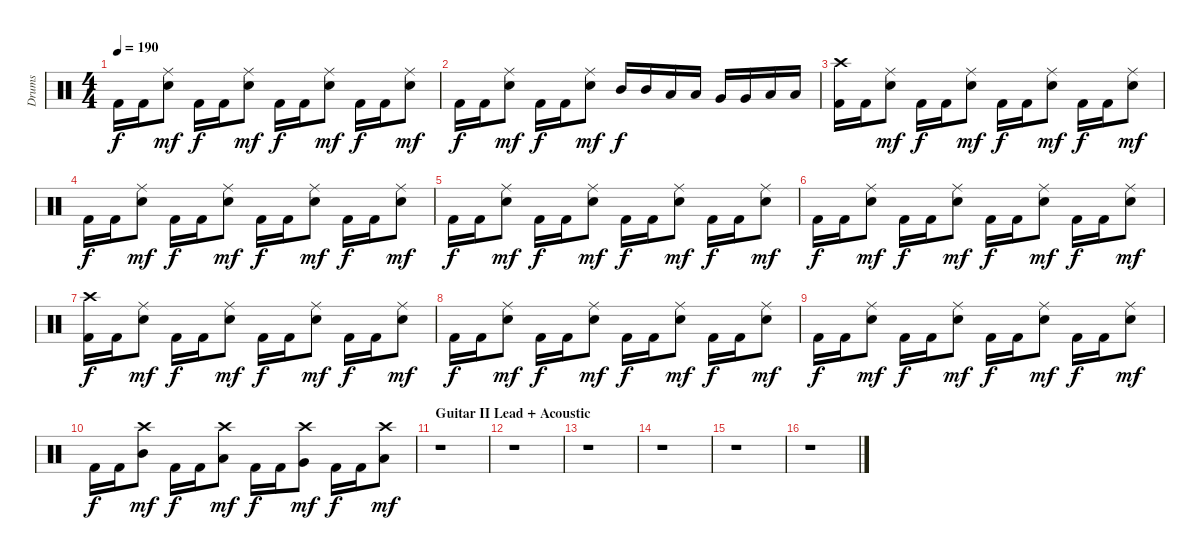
\track ("Drums" "Drums") {instrument percussion}
\staff {score}
\articulation defaults
\ts (4 4)
\tempo 190
\clef neutral
\ks c "Kick (hit) 2".16{dy f} "Kick (hit) 2".16
("Ride (middle)" "Snare (hit) 2").8{dy mf} "Kick (hit) 2".16{dy f} "Kick (hit) 2".16 ("Ride (middle)" "Snare (hit) 2").8{dy mf} "Kick (hit) 2".16{dy f} "Kick (hit) 2".16 ("Ride (middle)" "Snare (hit) 2").8{dy mf} "Kick (hit) 2".16{dy f} "Kick (hit) 2".16 ("Ride (middle)" "Snare (hit) 2").8{dy mf} |
"Kick (hit) 2".16{dy f} "Kick (hit) 2".16 ("Ride (middle)" "Snare (hit) 2").8{dy mf} "Kick (hit) 2".16{dy f} "Kick (hit) 2".16 ("Ride (middle)" "Snare (hit) 2").8{dy mf} "Mid Tom (hit)".16{dy f} "Mid Tom (hit)".16 "Low Tom (hit)".16 "Low Tom (hit)".16 "Very Low Tom (hit)".16 "Very Low Tom (hit)".16 "Low Floor Tom (hit)".16 "Low Floor Tom (hit)".16 |
("Crash high (hit)" "Kick (hit) 2").16 "Kick (hit) 2".16 ("Ride (middle)" "Snare (hit) 2").8{dy mf} "Kick (hit) 2".16{dy f} "Kick (hit) 2".16 ("Ride (middle)" "Snare (hit) 2").8{dy mf} "Kick (hit) 2".16{dy f} "Kick (hit) 2".16 ("Ride (middle)" "Snare (hit) 2").8{dy mf} "Kick (hit) 2".16{dy f} "Kick (hit) 2".16 ("Ride (middle)" "Snare (hit) 2").8{dy mf} |
"Kick (hit) 2".16{dy f} "Kick (hit) 2".16 ("Ride (middle)" "Snare (hit) 2").8{dy mf} "Kick (hit) 2".16{dy f} "Kick (hit) 2".16 ("Ride (middle)" "Snare (hit) 2").8{dy mf} "Kick (hit) 2".16{dy f} "Kick (hit) 2".16 ("Ride (middle)" "Snare (hit) 2").8{dy mf} "Kick (hit) 2".16{dy f} "Kick (hit) 2".16 ("Ride (middle)" "Snare (hit) 2").8{dy mf} |
"Kick (hit) 2".16{dy f} "Kick (hit) 2".16 ("Ride (middle)" "Snare (hit) 2").8{dy mf} "Kick (hit) 2".16{dy f} "Kick (hit) 2".16 ("Ride (middle)" "Snare (hit) 2").8{dy mf} "Kick (hit) 2".16{dy f} "Kick (hit) 2".16 ("Ride (middle)" "Snare (hit) 2").8{dy mf} "Kick (hit) 2".16{dy f} "Kick (hit) 2".16 ("Ride (middle)" "Snare (hit) 2").8{dy mf} |
"Kick (hit) 2".16{dy f} "Kick (hit) 2".16 ("Ride (middle)" "Snare (hit) 2").8{dy mf} "Kick (hit) 2".16{dy f} "Kick (hit) 2".16 ("Ride (middle)" "Snare (hit) 2").8{dy mf} "Kick (hit) 2".16{dy f} "Kick (hit) 2".16 ("Ride (middle)" "Snare (hit) 2").8{dy mf} "Kick (hit) 2".16{dy f} "Kick (hit) 2".16 ("Ride (middle)" "Snare (hit) 2").8{dy mf} |
("Crash high (hit)" "Kick (hit) 2").16{dy f} "Kick (hit) 2".16 ("Ride (middle)" "Snare (hit) 2").8{dy mf} "Kick (hit) 2".16{dy f} "Kick (hit) 2".16 ("Ride (middle)" "Snare (hit) 2").8{dy mf} "Kick (hit) 2".16{dy f} "Kick (hit) 2".16 ("Ride (middle)" "Snare (hit) 2").8{dy mf} "Kick (hit) 2".16{dy f} "Kick (hit) 2".16 ("Ride (middle)" "Snare (hit) 2").8{dy mf} |
"Kick (hit) 2".16{dy f} "Kick (hit) 2".16 ("Ride (middle)" "Snare (hit) 2").8{dy mf} "Kick (hit) 2".16{dy f} "Kick (hit) 2".16 ("Ride (middle)" "Snare (hit) 2").8{dy mf} "Kick (hit) 2".16{dy f} "Kick (hit) 2".16 ("Ride (middle)" "Snare (hit) 2").8{dy mf} "Kick (hit) 2".16{dy f} "Kick (hit) 2".16 ("Ride (middle)" "Snare (hit) 2").8{dy mf} |
"Kick (hit) 2".16{dy f} "Kick (hit) 2".16 ("Ride (middle)" "Snare (hit) 2").8{dy mf} "Kick (hit) 2".16{dy f} "Kick (hit) 2".16 ("Ride (middle)" "Snare (hit) 2").8{dy mf} "Kick (hit) 2".16{dy f} "Kick (hit) 2".16 ("Ride (middle)" "Snare (hit) 2").8{dy mf} "Kick (hit) 2".16{dy f} "Kick (hit) 2".16 ("Ride (middle)" "Snare (hit) 2").8{dy mf} |
"Kick (hit) 2".16{dy f} "Kick (hit) 2".16 ("Crash high (hit)" "Mid Tom (hit)").8{dy mf} "Kick (hit) 2".16{dy f} "Kick (hit) 2".16 ("Crash high (hit)" "Low Tom (hit)").8{dy mf} "Kick (hit) 2".16{dy f} "Kick (hit) 2".16 ("Crash high (hit)" "Very Low Tom (hit)").8{dy mf} "Kick (hit) 2".16{dy f} "Kick (hit) 2".16 ("Crash high (hit)" "Low Floor Tom (hit)").8{dy mf} |
\section ("" "Guitar II Lead + Acoustic")
r.1 |
r.1 |
r.1 |
r.1 |
r.1 |
r.1
